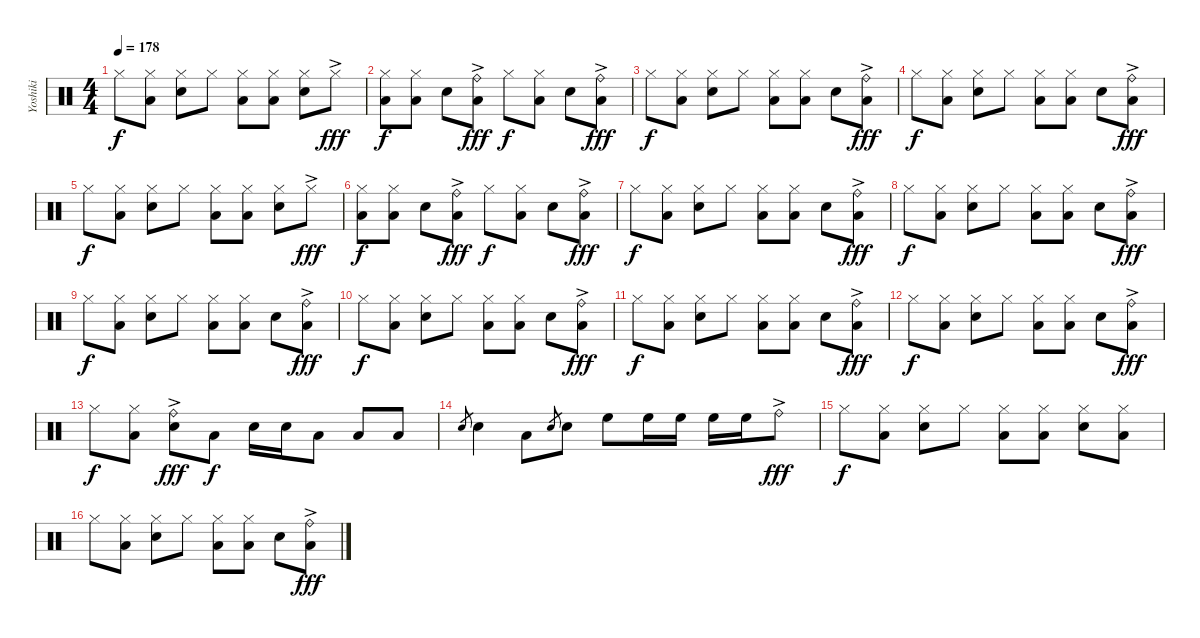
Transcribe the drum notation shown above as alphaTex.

\track ("Yoshiki" "Yoshiki") {instrument percussion}
\staff {score}
\articulation defaults
\ts (4 4)
\tempo 178
\clef neutral
\ks c "Hi-Hat (closed)".8{dy f}
("Hi-Hat (closed)" "Low Floor Tom (hit)").8 ("Hi-Hat (closed)" "Snare (hit) 2").8 "Hi-Hat (closed)".8 ("Hi-Hat (closed)" "Low Floor Tom (hit)").8 ("Hi-Hat (closed)" "Low Floor Tom (hit)").8 ("Hi-Hat (closed)" "Snare (hit) 2").8 "Hi-Hat (closed)"{ac}.8{dy fff} |
("Hi-Hat (closed)" "Low Floor Tom (hit)").8{dy f} ("Hi-Hat (closed)" "Low Floor Tom (hit)").8 "Snare (hit) 2".8 ("Ride (bell)"{ac} "Low Floor Tom (hit)").8{dy fff} "Hi-Hat (closed)".8{dy f} ("Hi-Hat (closed)" "Low Floor Tom (hit)").8 "Snare (hit) 2".8 ("Ride (bell)"{ac} "Low Floor Tom (hit)").8{dy fff} |
"Hi-Hat (closed)".8{dy f} ("Hi-Hat (closed)" "Low Floor Tom (hit)").8 ("Hi-Hat (closed)" "Snare (hit) 2").8 "Hi-Hat (closed)".8 ("Hi-Hat (closed)" "Low Floor Tom (hit)").8 ("Hi-Hat (closed)" "Low Floor Tom (hit)").8 "Snare (hit) 2".8 ("Ride (bell)"{ac} "Low Floor Tom (hit)").8{dy fff} |
"Hi-Hat (closed)".8{dy f} ("Hi-Hat (closed)" "Low Floor Tom (hit)").8 ("Hi-Hat (closed)" "Snare (hit) 2").8 "Hi-Hat (closed)".8 ("Hi-Hat (closed)" "Low Floor Tom (hit)").8 ("Hi-Hat (closed)" "Low Floor Tom (hit)").8 "Snare (hit) 2".8 ("Ride (bell)"{ac} "Low Floor Tom (hit)").8{dy fff} |
"Hi-Hat (closed)".8{dy f} ("Hi-Hat (closed)" "Low Floor Tom (hit)").8 ("Hi-Hat (closed)" "Snare (hit) 2").8 "Hi-Hat (closed)".8 ("Hi-Hat (closed)" "Low Floor Tom (hit)").8 ("Hi-Hat (closed)" "Low Floor Tom (hit)").8 ("Hi-Hat (closed)" "Snare (hit) 2").8 "Hi-Hat (closed)"{ac}.8{dy fff} |
("Hi-Hat (closed)" "Low Floor Tom (hit)").8{dy f} ("Hi-Hat (closed)" "Low Floor Tom (hit)").8 "Snare (hit) 2".8 ("Ride (bell)"{ac} "Low Floor Tom (hit)").8{dy fff} "Hi-Hat (closed)".8{dy f} ("Hi-Hat (closed)" "Low Floor Tom (hit)").8 "Snare (hit) 2".8 ("Ride (bell)" "Low Floor Tom (hit)"{ac}).8{dy fff} |
"Hi-Hat (closed)".8{dy f} ("Hi-Hat (closed)" "Low Floor Tom (hit)").8 ("Hi-Hat (closed)" "Snare (hit) 2").8 "Hi-Hat (closed)".8 ("Hi-Hat (closed)" "Low Floor Tom (hit)").8 ("Hi-Hat (closed)" "Low Floor Tom (hit)").8 "Snare (hit) 2".8 ("Ride (bell)"{ac} "Low Floor Tom (hit)").8{dy fff} |
"Hi-Hat (closed)".8{dy f} ("Hi-Hat (closed)" "Low Floor Tom (hit)").8 ("Hi-Hat (closed)" "Snare (hit) 2").8 "Hi-Hat (closed)".8 ("Hi-Hat (closed)" "Low Floor Tom (hit)").8 ("Hi-Hat (closed)" "Low Floor Tom (hit)").8 "Snare (hit) 2".8 ("Ride (bell)"{ac} "Low Floor Tom (hit)").8{dy fff} |
"Hi-Hat (closed)".8{dy f} ("Hi-Hat (closed)" "Low Floor Tom (hit)").8 ("Hi-Hat (closed)" "Snare (hit) 2").8 "Hi-Hat (closed)".8 ("Hi-Hat (closed)" "Low Floor Tom (hit)").8 ("Hi-Hat (closed)" "Low Floor Tom (hit)").8 "Snare (hit) 2".8 ("Ride (bell)"{ac} "Low Floor Tom (hit)").8{dy fff} |
"Hi-Hat (closed)".8{dy f} ("Hi-Hat (closed)" "Low Floor Tom (hit)").8 ("Hi-Hat (closed)" "Snare (hit) 2").8 "Hi-Hat (closed)".8 ("Hi-Hat (closed)" "Low Floor Tom (hit)").8 ("Hi-Hat (closed)" "Low Floor Tom (hit)").8 "Snare (hit) 2".8 ("Ride (bell)"{ac} "Low Floor Tom (hit)").8{dy fff} |
"Hi-Hat (closed)".8{dy f} ("Hi-Hat (closed)" "Low Floor Tom (hit)").8 ("Hi-Hat (closed)" "Snare (hit) 2").8 "Hi-Hat (closed)".8 ("Hi-Hat (closed)" "Low Floor Tom (hit)").8 ("Hi-Hat (closed)" "Low Floor Tom (hit)").8 "Snare (hit) 2".8 ("Ride (bell)"{ac} "Low Floor Tom (hit)").8{dy fff} |
"Hi-Hat (closed)".8{dy f} ("Hi-Hat (closed)" "Low Floor Tom (hit)").8 ("Hi-Hat (closed)" "Snare (hit) 2").8 "Hi-Hat (closed)".8 ("Hi-Hat (closed)" "Low Floor Tom (hit)").8 ("Hi-Hat (closed)" "Low Floor Tom (hit)").8 "Snare (hit) 2".8 ("Ride (bell)"{ac} "Low Floor Tom (hit)").8{dy fff} |
"Hi-Hat (closed)".8{dy f} ("Hi-Hat (closed)" "Low Floor Tom (hit)").8 ("Ride (bell)"{ac} "Snare (hit) 2").8{dy fff} "Low Floor Tom (hit)".8{dy f} "Snare (hit) 2".16 "Snare (hit) 2".16 "Low Floor Tom (hit)".8 "Low Floor Tom (hit)".8 "Low Floor Tom (hit)".8 |
"Snare (hit) 2".8{gr} "Snare (hit) 2".4 "Low Floor Tom (hit)".8 "Snare (hit) 2".8{gr} "Snare (hit) 2".8 "High Floor Tom (hit)".8 "High Floor Tom (hit)".16 "High Floor Tom (hit)".16 "High Floor Tom (hit)".16 "High Floor Tom (hit)".16 "Ride (bell)"{ac}.8{dy fff} |
"Hi-Hat (closed)".8{dy f} ("Hi-Hat (closed)" "Low Floor Tom (hit)").8 ("Hi-Hat (closed)" "Snare (hit) 2").8 "Hi-Hat (closed)".8 ("Hi-Hat (closed)" "Low Floor Tom (hit)").8 ("Hi-Hat (closed)" "Low Floor Tom (hit)").8 ("Hi-Hat (closed)" "Snare (hit) 2").8 ("Hi-Hat (closed)" "Low Floor Tom (hit)").8 |
"Hi-Hat (closed)".8 ("Hi-Hat (closed)" "Low Floor Tom (hit)").8 ("Hi-Hat (closed)" "Snare (hit) 2").8 "Hi-Hat (closed)".8 ("Hi-Hat (closed)" "Low Floor Tom (hit)").8 ("Hi-Hat (closed)" "Low Floor Tom (hit)").8 "Snare (hit) 2".8 ("Ride (bell)"{ac} "Low Floor Tom (hit)").8{dy fff}
